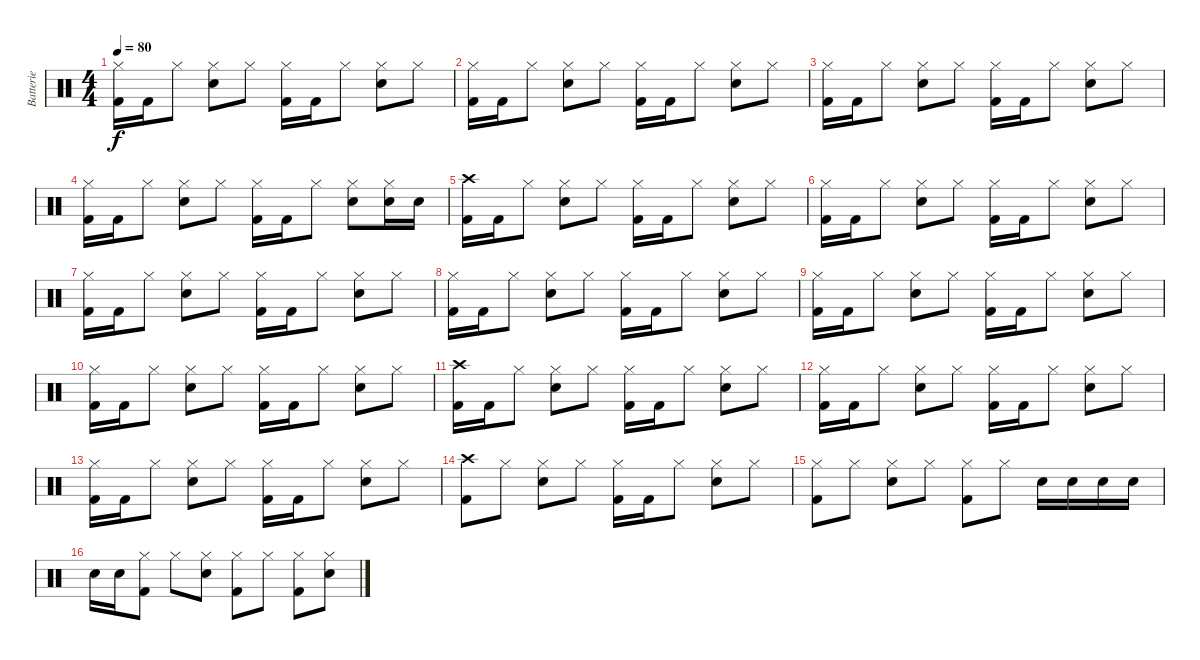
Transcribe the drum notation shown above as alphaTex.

\track ("Batterie" "Batterie") {instrument percussion}
\staff {score}
\articulation defaults
\ts (4 4)
\tempo 80
\clef neutral
\ks c
("Kick (hit) 2" "Hi-Hat (closed)").16{dy f} "Kick (hit) 2".16 "Hi-Hat (closed)".8 ("Snare (hit) 2" "Hi-Hat (closed)").8 "Hi-Hat (closed)".8 ("Kick (hit) 2" "Hi-Hat (closed)").16 "Kick (hit) 2".16 "Hi-Hat (closed)".8 ("Snare (hit) 2" "Hi-Hat (closed)").8 "Hi-Hat (closed)".8 |
("Kick (hit) 2" "Hi-Hat (closed)").16 "Kick (hit) 2".16 "Hi-Hat (closed)".8 ("Snare (hit) 2" "Hi-Hat (closed)").8 "Hi-Hat (closed)".8 ("Kick (hit) 2" "Hi-Hat (closed)").16 "Kick (hit) 2".16 "Hi-Hat (closed)".8 ("Snare (hit) 2" "Hi-Hat (closed)").8 "Hi-Hat (closed)".8 |
("Kick (hit) 2" "Hi-Hat (closed)").16 "Kick (hit) 2".16 "Hi-Hat (closed)".8 ("Snare (hit) 2" "Hi-Hat (closed)").8 "Hi-Hat (closed)".8 ("Kick (hit) 2" "Hi-Hat (closed)").16 "Kick (hit) 2".16 "Hi-Hat (closed)".8 ("Snare (hit) 2" "Hi-Hat (closed)").8 "Hi-Hat (closed)".8 |
("Kick (hit) 2" "Hi-Hat (closed)").16 "Kick (hit) 2".16 "Hi-Hat (closed)".8 ("Snare (hit) 2" "Hi-Hat (closed)").8 "Hi-Hat (closed)".8 ("Kick (hit) 2" "Hi-Hat (closed)").16 "Kick (hit) 2".16 "Hi-Hat (closed)".8 ("Snare (hit) 2" "Hi-Hat (closed)").8 ("Snare (hit) 2" "Hi-Hat (closed)").16 "Snare (hit) 2".16 |
("Kick (hit) 2" "Crash high (hit)").16 "Kick (hit) 2".16 "Hi-Hat (closed)".8 ("Snare (hit) 2" "Hi-Hat (closed)").8 "Hi-Hat (closed)".8 ("Kick (hit) 2" "Hi-Hat (closed)").16 "Kick (hit) 2".16 "Hi-Hat (closed)".8 ("Snare (hit) 2" "Hi-Hat (closed)").8 "Hi-Hat (closed)".8 |
("Kick (hit) 2" "Hi-Hat (closed)").16 "Kick (hit) 2".16 "Hi-Hat (closed)".8 ("Snare (hit) 2" "Hi-Hat (closed)").8 "Hi-Hat (closed)".8 ("Kick (hit) 2" "Hi-Hat (closed)").16 "Kick (hit) 2".16 "Hi-Hat (closed)".8 ("Snare (hit) 2" "Hi-Hat (closed)").8 "Hi-Hat (closed)".8 |
("Kick (hit) 2" "Hi-Hat (closed)").16 "Kick (hit) 2".16 "Hi-Hat (closed)".8 ("Snare (hit) 2" "Hi-Hat (closed)").8 "Hi-Hat (closed)".8 ("Kick (hit) 2" "Hi-Hat (closed)").16 "Kick (hit) 2".16 "Hi-Hat (closed)".8 ("Snare (hit) 2" "Hi-Hat (closed)").8 "Hi-Hat (closed)".8 |
("Kick (hit) 2" "Hi-Hat (closed)").16 "Kick (hit) 2".16 "Hi-Hat (closed)".8 ("Snare (hit) 2" "Hi-Hat (closed)").8 "Hi-Hat (closed)".8 ("Kick (hit) 2" "Hi-Hat (closed)").16 "Kick (hit) 2".16 "Hi-Hat (closed)".8 ("Snare (hit) 2" "Hi-Hat (closed)").8 "Hi-Hat (closed)".8 |
("Kick (hit) 2" "Hi-Hat (closed)").16 "Kick (hit) 2".16 "Hi-Hat (closed)".8 ("Snare (hit) 2" "Hi-Hat (closed)").8 "Hi-Hat (closed)".8 ("Kick (hit) 2" "Hi-Hat (closed)").16 "Kick (hit) 2".16 "Hi-Hat (closed)".8 ("Snare (hit) 2" "Hi-Hat (closed)").8 "Hi-Hat (closed)".8 |
("Kick (hit) 2" "Hi-Hat (closed)").16 "Kick (hit) 2".16 "Hi-Hat (closed)".8 ("Snare (hit) 2" "Hi-Hat (closed)").8 "Hi-Hat (closed)".8 ("Kick (hit) 2" "Hi-Hat (closed)").16 "Kick (hit) 2".16 "Hi-Hat (closed)".8 ("Snare (hit) 2" "Hi-Hat (closed)").8 "Hi-Hat (closed)".8 |
("Kick (hit) 2" "Crash high (hit)").16 "Kick (hit) 2".16 "Hi-Hat (closed)".8 ("Snare (hit) 2" "Hi-Hat (closed)").8 "Hi-Hat (closed)".8 ("Kick (hit) 2" "Hi-Hat (closed)").16 "Kick (hit) 2".16 "Hi-Hat (closed)".8 ("Snare (hit) 2" "Hi-Hat (closed)").8 "Hi-Hat (closed)".8 |
("Kick (hit) 2" "Hi-Hat (closed)").16 "Kick (hit) 2".16 "Hi-Hat (closed)".8 ("Snare (hit) 2" "Hi-Hat (closed)").8 "Hi-Hat (closed)".8 ("Kick (hit) 2" "Hi-Hat (closed)").16 "Kick (hit) 2".16 "Hi-Hat (closed)".8 ("Snare (hit) 2" "Hi-Hat (closed)").8 "Hi-Hat (closed)".8 |
("Kick (hit) 2" "Hi-Hat (closed)").16 "Kick (hit) 2".16 "Hi-Hat (closed)".8 ("Snare (hit) 2" "Hi-Hat (closed)").8 "Hi-Hat (closed)".8 ("Kick (hit) 2" "Hi-Hat (closed)").16 "Kick (hit) 2".16 "Hi-Hat (closed)".8 ("Snare (hit) 2" "Hi-Hat (closed)").8 "Hi-Hat (closed)".8 |
("Kick (hit) 2" "Crash high (hit)").8 "Hi-Hat (closed)".8 ("Snare (hit) 2" "Hi-Hat (closed)").8 "Hi-Hat (closed)".8 ("Kick (hit) 2" "Hi-Hat (closed)").16 "Kick (hit) 2".16 "Hi-Hat (closed)".8 ("Snare (hit) 2" "Hi-Hat (closed)").8 "Hi-Hat (closed)".8 |
("Kick (hit) 2" "Hi-Hat (closed)").8 "Hi-Hat (closed)".8 ("Snare (hit) 2" "Hi-Hat (closed)").8 "Hi-Hat (closed)".8 ("Kick (hit) 2" "Hi-Hat (closed)").8 "Hi-Hat (closed)".8 "Snare (hit) 2".16 "Snare (hit) 2".16 "Snare (hit) 2".16 "Snare (hit) 2".16 |
"Snare (hit) 2".16 "Snare (hit) 2".16 ("Kick (hit) 2" "Hi-Hat (closed)").8 "Hi-Hat (closed)".8 ("Snare (hit) 2" "Hi-Hat (closed)").8 ("Kick (hit) 2" "Hi-Hat (closed)").8 "Hi-Hat (closed)".8 ("Kick (hit) 2" "Hi-Hat (closed)").8 ("Snare (hit) 2" "Hi-Hat (closed)").8
